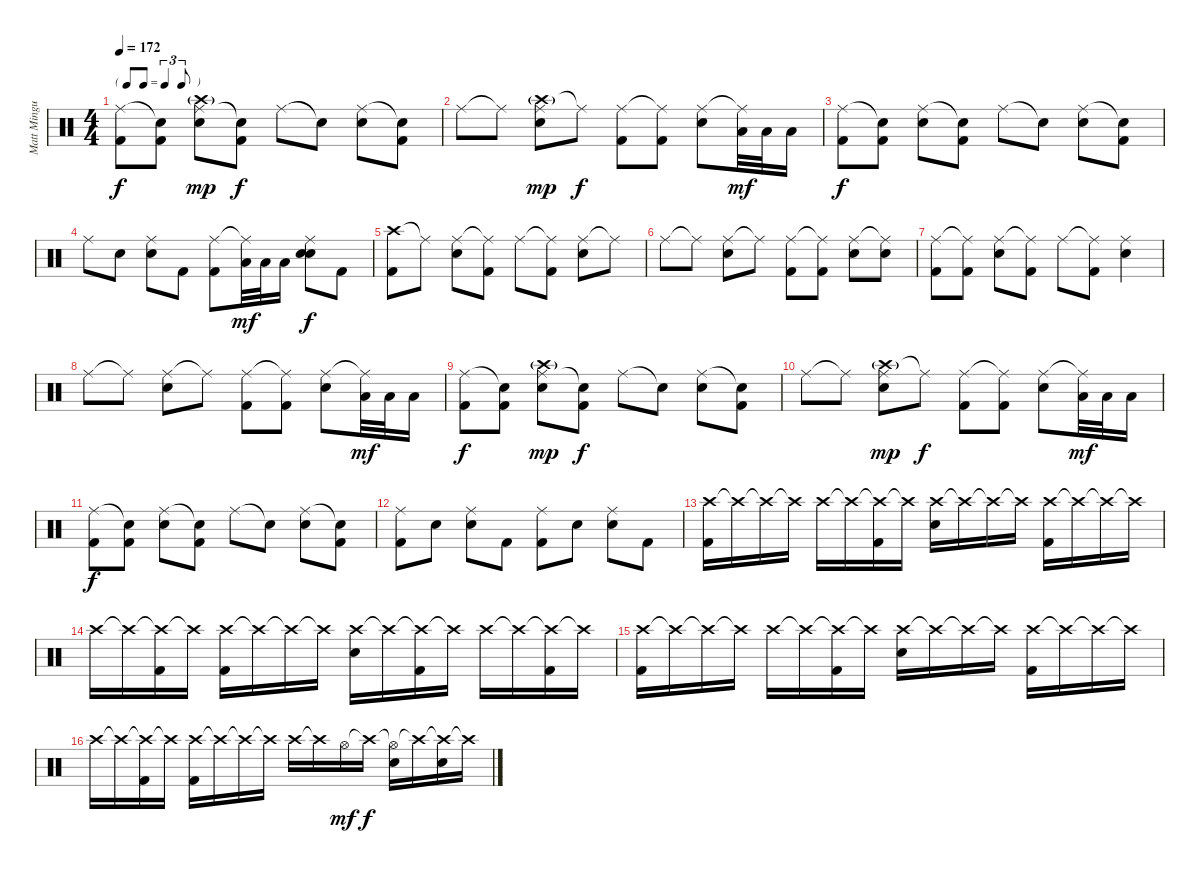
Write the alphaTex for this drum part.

\track ("Matt Mingus" "Matt Mingu") {instrument percussion}
\staff {score}
\articulation defaults
\ts (4 4)
\tf triplet8th
\tempo 172
\clef neutral
\ks c
("Ride (middle)" "Kick (hit) 2").8{dy f} ("Snare (hit)"{t} "Kick (hit) 2").8 ("Ride (middle)" "Crash high (hit)"{g} "Electric Snare (hit)").8{dy mp} ("Snare (hit)"{t} "Kick (hit) 2").8{dy f} "Ride (middle)".8 "Snare (hit)"{t}.8 ("Ride (middle)" "Electric Snare (hit)").8 ("Snare (hit)"{t} "Kick (hit) 2").8 |
"Ride (middle)".8 "Ride (middle)"{t}.8 ("Crash high (hit)"{g} "Ride (middle)" "Electric Snare (hit)").8{dy mp} "Ride (middle)"{t}.8{dy f} ("Ride (middle)" "Kick (hit) 2").8 ("Ride (middle)"{t} "Kick (hit) 2").8 ("Ride (middle)" "Electric Snare (hit)").8 ("Ride (middle)"{t} "Low Floor Tom (hit)").32{dy mf} "Low Floor Tom (hit)".32 "Low Floor Tom (hit)".16 |
("Ride (middle)" "Kick (hit) 2").8{dy f} ("Snare (hit)"{t} "Kick (hit) 2").8 ("Ride (middle)" "Electric Snare (hit)").8 ("Snare (hit)"{t} "Kick (hit) 2").8 "Ride (middle)".8 "Snare (hit)"{t}.8 ("Ride (middle)" "Electric Snare (hit)").8 ("Snare (hit)"{t} "Kick (hit) 2").8 |
"Ride (middle)".8 "Electric Snare (hit)".8 ("Ride (middle)" "Electric Snare (hit)").8 "Kick (hit) 2".8 ("Ride (middle)" "Kick (hit) 2").8 ("Ride (middle)"{t} "Low Floor Tom (hit)").32{dy mf} "Low Floor Tom (hit)".32 "Low Floor Tom (hit)".16 ("Ride (middle)" "Snare (hit) 2" "Electric Snare (hit)").8{dy f} "Kick (hit) 2".8 |
("Crash high (hit)" "Kick (hit) 2").8 "Ride (middle)"{t}.8 ("Ride (middle)" "Electric Snare (hit)").8 ("Ride (middle)"{t} "Kick (hit) 2").8 "Ride (middle)".8 ("Ride (middle)"{t} "Kick (hit) 2").8 ("Ride (middle)" "Electric Snare (hit)").8 "Ride (middle)"{t}.8 |
"Ride (middle)".8 "Ride (middle)"{t}.8 ("Ride (middle)" "Electric Snare (hit)").8 "Ride (middle)"{t}.8 ("Ride (middle)" "Kick (hit) 2").8 ("Ride (middle)"{t} "Kick (hit) 2").8 ("Ride (middle)" "Electric Snare (hit)").8 ("Ride (middle)"{t} "Electric Snare (hit)").8 |
("Ride (middle)" "Kick (hit) 2").8 ("Ride (middle)"{t} "Kick (hit) 2").8 ("Ride (middle)" "Electric Snare (hit)").8 ("Ride (middle)"{t} "Kick (hit) 2").8 "Ride (middle)".8 ("Ride (middle)"{t} "Kick (hit) 2").8 ("Ride (middle)" "Electric Snare (hit)").4 |
"Ride (middle)".8 "Ride (middle)"{t}.8 ("Ride (middle)" "Electric Snare (hit)").8 "Ride (middle)"{t}.8 ("Ride (middle)" "Kick (hit) 2").8 ("Ride (middle)"{t} "Kick (hit) 2").8 ("Ride (middle)" "Electric Snare (hit)").8 ("Ride (middle)"{t} "Low Floor Tom (hit)").32{dy mf} "Low Floor Tom (hit)".32 "Low Floor Tom (hit)".16 |
("Ride (middle)" "Kick (hit) 2").8{dy f} ("Snare (hit)"{t} "Kick (hit) 2").8 ("Ride (middle)" "Crash high (hit)"{g} "Electric Snare (hit)").8{dy mp} ("Snare (hit)"{t} "Kick (hit) 2").8{dy f} "Ride (middle)".8 "Snare (hit)"{t}.8 ("Ride (middle)" "Electric Snare (hit)").8 ("Snare (hit)"{t} "Kick (hit) 2").8 |
"Ride (middle)".8 "Ride (middle)"{t}.8 ("Crash high (hit)"{g} "Ride (middle)" "Electric Snare (hit)").8{dy mp} "Ride (middle)"{t}.8{dy f} ("Ride (middle)" "Kick (hit) 2").8 ("Ride (middle)"{t} "Kick (hit) 2").8 ("Ride (middle)" "Electric Snare (hit)").8 ("Ride (middle)"{t} "Low Floor Tom (hit)").32{dy mf} "Low Floor Tom (hit)".32 "Low Floor Tom (hit)".16 |
("Ride (middle)" "Kick (hit) 2").8{dy f} ("Snare (hit)"{t} "Kick (hit) 2").8 ("Ride (middle)" "Electric Snare (hit)").8 ("Snare (hit)"{t} "Kick (hit) 2").8 "Ride (middle)".8 "Snare (hit)"{t}.8 ("Ride (middle)" "Electric Snare (hit)").8 ("Snare (hit)"{t} "Kick (hit) 2").8 |
("Ride (middle)" "Kick (hit) 2").8 "Electric Snare (hit)".8 ("Ride (middle)" "Electric Snare (hit)").8 "Kick (hit) 2".8 ("Ride (middle)" "Kick (hit) 2").8 "Electric Snare (hit)".8 ("Ride (middle)" "Electric Snare (hit)").8 "Kick (hit) 2".8 |
("Crash high (hit)" "Kick (hit) 2").16 "Crash high (hit)"{t}.16 "Crash high (hit)"{t}.16 "Crash high (hit)"{t}.16 "Crash high (hit)".16 "Crash high (hit)"{t}.16 ("Crash high (hit)"{t} "Kick (hit) 2").16 "Crash high (hit)"{t}.16 ("Crash high (hit)" "Electric Snare (hit)").16 "Crash high (hit)"{t}.16 "Crash high (hit)"{t}.16 "Crash high (hit)"{t}.16 ("Crash high (hit)" "Kick (hit) 2").16 "Crash high (hit)"{t}.16 "Crash high (hit)"{t}.16 "Crash high (hit)"{t}.16 |
"Crash high (hit)".16 "Crash high (hit)"{t}.16 ("Crash high (hit)"{t} "Kick (hit) 2").16 "Crash high (hit)"{t}.16 ("Crash high (hit)" "Kick (hit) 2").16 "Crash high (hit)"{t}.16 "Crash high (hit)"{t}.16 "Crash high (hit)"{t}.16 ("Crash high (hit)" "Electric Snare (hit)").16 "Crash high (hit)"{t}.16 ("Crash high (hit)"{t} "Kick (hit) 2").16 "Crash high (hit)"{t}.16 "Crash high (hit)".16 "Crash high (hit)"{t}.16 ("Crash high (hit)"{t} "Kick (hit) 2").16 "Crash high (hit)"{t}.16 |
("Crash high (hit)" "Kick (hit) 2").16 "Crash high (hit)"{t}.16 "Crash high (hit)"{t}.16 "Crash high (hit)"{t}.16 "Crash high (hit)".16 "Crash high (hit)"{t}.16 ("Crash high (hit)"{t} "Kick (hit) 2").16 "Crash high (hit)"{t}.16 ("Crash high (hit)" "Electric Snare (hit)").16 "Crash high (hit)"{t}.16 "Crash high (hit)"{t}.16 "Crash high (hit)"{t}.16 ("Crash high (hit)" "Kick (hit) 2").16 "Crash high (hit)"{t}.16 "Crash high (hit)"{t}.16 "Crash high (hit)"{t}.16 |
"Crash high (hit)".16 "Crash high (hit)"{t}.16 ("Crash high (hit)"{t} "Kick (hit) 2").16 "Crash high (hit)"{t}.16 ("Crash high (hit)" "Kick (hit) 2").16 "Crash high (hit)"{t}.16 "Crash high (hit)"{t}.16 "Crash high (hit)"{t}.16 "Crash high (hit)".16 "Crash high (hit)"{t}.16 "Hi-Hat (open)".16{dy mf} "Crash high (hit)"{t}.16{dy f} ("Hi-Hat (open)"{t} "Electric Snare (hit)").16 "Crash high (hit)"{t}.16 ("Crash high (hit)"{t} "Electric Snare (hit)").16 "Crash high (hit)"{t}.16
